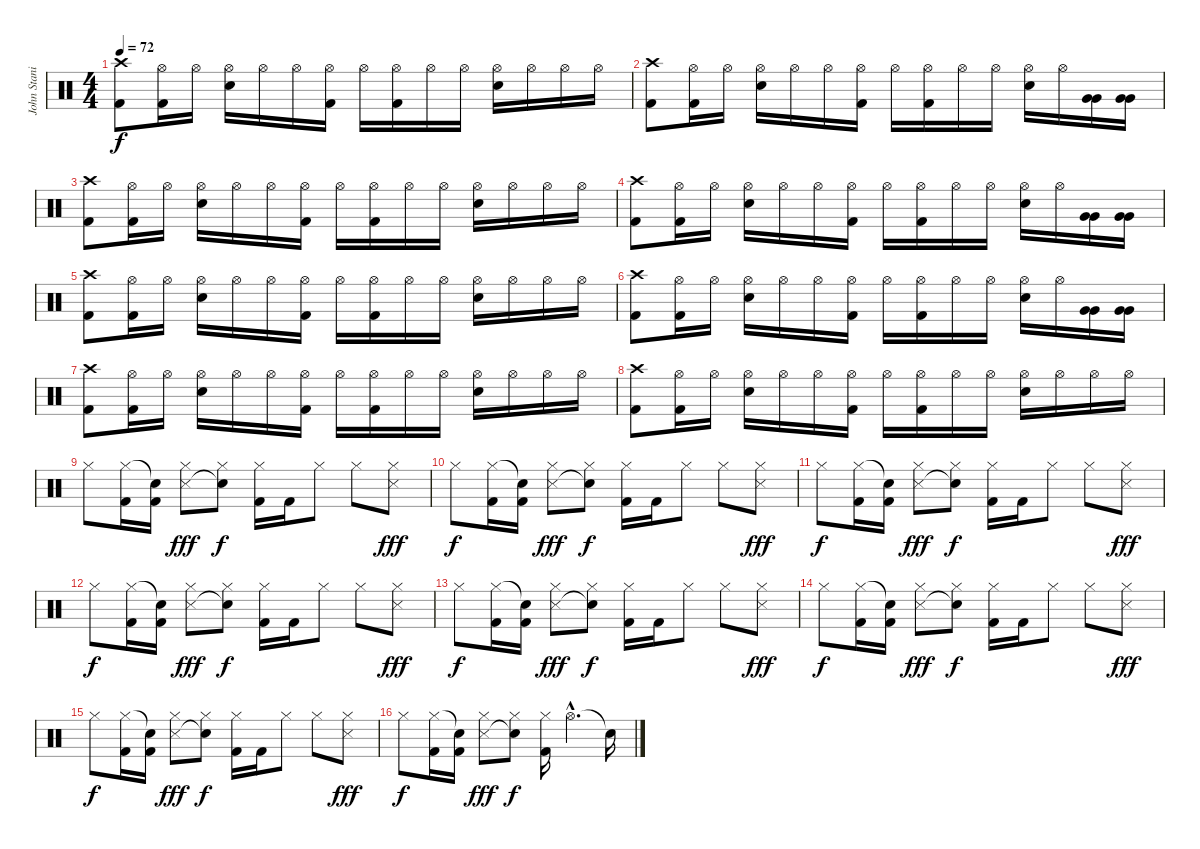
\track ("John Stanier (Drums)" "John Stani") {instrument percussion}
\staff {score}
\articulation defaults
\ts (4 4)
\tempo 72
\clef neutral
\ks c
("Crash high (hit)" "Kick (hit) 2").8{dy f} ("Hi-Hat (open)" "Kick (hit) 2").16 "Hi-Hat (open)".16 ("Hi-Hat (open)" "Electric Snare (hit)").16 "Hi-Hat (open)".16 "Hi-Hat (open)".16 ("Hi-Hat (open)" "Kick (hit) 2").16 "Hi-Hat (open)".16 ("Hi-Hat (open)" "Kick (hit) 2").16 "Hi-Hat (open)".16 "Hi-Hat (open)".16 ("Hi-Hat (open)" "Electric Snare (hit)").16 "Hi-Hat (open)".16 "Hi-Hat (open)".16 "Hi-Hat (open)".16 |
("Crash high (hit)" "Kick (hit) 2").8 ("Hi-Hat (open)" "Kick (hit) 2").16 "Hi-Hat (open)".16 ("Hi-Hat (open)" "Electric Snare (hit)").16 "Hi-Hat (open)".16 "Hi-Hat (open)".16 ("Hi-Hat (open)" "Kick (hit) 2").16 "Hi-Hat (open)".16 ("Hi-Hat (open)" "Kick (hit) 2").16 "Hi-Hat (open)".16 "Hi-Hat (open)".16 ("Hi-Hat (open)" "Electric Snare (hit)").16 "Hi-Hat (open)".16 ("Very Low Tom (hit)" "Very Low Tom (hit)").16 ("Very Low Tom (hit)" "Very Low Tom (hit)").16 |
("Crash high (hit)" "Kick (hit) 2").8 ("Hi-Hat (open)" "Kick (hit) 2").16 "Hi-Hat (open)".16 ("Hi-Hat (open)" "Electric Snare (hit)").16 "Hi-Hat (open)".16 "Hi-Hat (open)".16 ("Hi-Hat (open)" "Kick (hit) 2").16 "Hi-Hat (open)".16 ("Hi-Hat (open)" "Kick (hit) 2").16 "Hi-Hat (open)".16 "Hi-Hat (open)".16 ("Hi-Hat (open)" "Electric Snare (hit)").16 "Hi-Hat (open)".16 "Hi-Hat (open)".16 "Hi-Hat (open)".16 |
("Crash high (hit)" "Kick (hit) 2").8 ("Hi-Hat (open)" "Kick (hit) 2").16 "Hi-Hat (open)".16 ("Hi-Hat (open)" "Electric Snare (hit)").16 "Hi-Hat (open)".16 "Hi-Hat (open)".16 ("Hi-Hat (open)" "Kick (hit) 2").16 "Hi-Hat (open)".16 ("Hi-Hat (open)" "Kick (hit) 2").16 "Hi-Hat (open)".16 "Hi-Hat (open)".16 ("Hi-Hat (open)" "Electric Snare (hit)").16 "Hi-Hat (open)".16 ("Very Low Tom (hit)" "Very Low Tom (hit)").16 ("Very Low Tom (hit)" "Very Low Tom (hit)").16 |
("Crash high (hit)" "Kick (hit) 2").8 ("Hi-Hat (open)" "Kick (hit) 2").16 "Hi-Hat (open)".16 ("Hi-Hat (open)" "Electric Snare (hit)").16 "Hi-Hat (open)".16 "Hi-Hat (open)".16 ("Hi-Hat (open)" "Kick (hit) 2").16 "Hi-Hat (open)".16 ("Hi-Hat (open)" "Kick (hit) 2").16 "Hi-Hat (open)".16 "Hi-Hat (open)".16 ("Hi-Hat (open)" "Electric Snare (hit)").16 "Hi-Hat (open)".16 "Hi-Hat (open)".16 "Hi-Hat (open)".16 |
("Crash high (hit)" "Kick (hit) 2").8 ("Hi-Hat (open)" "Kick (hit) 2").16 "Hi-Hat (open)".16 ("Hi-Hat (open)" "Electric Snare (hit)").16 "Hi-Hat (open)".16 "Hi-Hat (open)".16 ("Hi-Hat (open)" "Kick (hit) 2").16 "Hi-Hat (open)".16 ("Hi-Hat (open)" "Kick (hit) 2").16 "Hi-Hat (open)".16 "Hi-Hat (open)".16 ("Hi-Hat (open)" "Electric Snare (hit)").16 "Hi-Hat (open)".16 ("Very Low Tom (hit)" "Very Low Tom (hit)").16 ("Very Low Tom (hit)" "Very Low Tom (hit)").16 |
("Crash high (hit)" "Kick (hit) 2").8 ("Hi-Hat (open)" "Kick (hit) 2").16 "Hi-Hat (open)".16 ("Hi-Hat (open)" "Electric Snare (hit)").16 "Hi-Hat (open)".16 "Hi-Hat (open)".16 ("Hi-Hat (open)" "Kick (hit) 2").16 "Hi-Hat (open)".16 ("Hi-Hat (open)" "Kick (hit) 2").16 "Hi-Hat (open)".16 "Hi-Hat (open)".16 ("Hi-Hat (open)" "Electric Snare (hit)").16 "Hi-Hat (open)".16 "Hi-Hat (open)".16 "Hi-Hat (open)".16 |
("Crash high (hit)" "Kick (hit) 2").8 ("Hi-Hat (open)" "Kick (hit) 2").16 "Hi-Hat (open)".16 ("Hi-Hat (open)" "Electric Snare (hit)").16 "Hi-Hat (open)".16 "Hi-Hat (open)".16 ("Hi-Hat (open)" "Kick (hit) 2").16 "Hi-Hat (open)".16 ("Hi-Hat (open)" "Kick (hit) 2").16 "Hi-Hat (open)".16 "Hi-Hat (open)".16 ("Hi-Hat (open)" "Electric Snare (hit)").16 "Hi-Hat (open)".16 "Hi-Hat (open)".16 "Hi-Hat (open)".16 |
"Hi-Hat (closed)".8 ("Hi-Hat (closed)" "Kick (hit) 2").16 ("Snare (hit)"{t} "Kick (hit) 2").16 ("Hi-Hat (closed)" "Snare (side stick) 3").8{dy fff} ("Hi-Hat (closed)" "Snare (hit)"{t}).8{dy f} ("Hi-Hat (closed)" "Kick (hit) 2").16 "Kick (hit) 2".16 "Hi-Hat (closed)".8 "Hi-Hat (closed)".8 ("Hi-Hat (closed)" "Snare (side stick) 3").8{dy fff} |
"Hi-Hat (closed)".8{dy f} ("Hi-Hat (closed)" "Kick (hit) 2").16 ("Snare (hit)"{t} "Kick (hit) 2").16 ("Hi-Hat (closed)" "Snare (side stick) 3").8{dy fff} ("Hi-Hat (closed)" "Snare (hit)"{t}).8{dy f} ("Hi-Hat (closed)" "Kick (hit) 2").16 "Kick (hit) 2".16 "Hi-Hat (closed)".8 "Hi-Hat (closed)".8 ("Hi-Hat (closed)" "Snare (side stick) 3").8{dy fff} |
"Hi-Hat (closed)".8{dy f} ("Hi-Hat (closed)" "Kick (hit) 2").16 ("Snare (hit)"{t} "Kick (hit) 2").16 ("Hi-Hat (closed)" "Snare (side stick) 3").8{dy fff} ("Hi-Hat (closed)" "Snare (hit)"{t}).8{dy f} ("Hi-Hat (closed)" "Kick (hit) 2").16 "Kick (hit) 2".16 "Hi-Hat (closed)".8 "Hi-Hat (closed)".8 ("Hi-Hat (closed)" "Snare (side stick) 3").8{dy fff} |
"Hi-Hat (closed)".8{dy f} ("Hi-Hat (closed)" "Kick (hit) 2").16 ("Snare (hit)"{t} "Kick (hit) 2").16 ("Hi-Hat (closed)" "Snare (side stick) 3").8{dy fff} ("Hi-Hat (closed)" "Snare (hit)"{t}).8{dy f} ("Hi-Hat (closed)" "Kick (hit) 2").16 "Kick (hit) 2".16 "Hi-Hat (closed)".8 "Hi-Hat (closed)".8 ("Hi-Hat (closed)" "Snare (side stick) 3").8{dy fff} |
"Hi-Hat (closed)".8{dy f} ("Hi-Hat (closed)" "Kick (hit) 2").16 ("Snare (hit)"{t} "Kick (hit) 2").16 ("Hi-Hat (closed)" "Snare (side stick) 3").8{dy fff} ("Hi-Hat (closed)" "Snare (hit)"{t}).8{dy f} ("Hi-Hat (closed)" "Kick (hit) 2").16 "Kick (hit) 2".16 "Hi-Hat (closed)".8 "Hi-Hat (closed)".8 ("Hi-Hat (closed)" "Snare (side stick) 3").8{dy fff} |
"Hi-Hat (closed)".8{dy f} ("Hi-Hat (closed)" "Kick (hit) 2").16 ("Snare (hit)"{t} "Kick (hit) 2").16 ("Hi-Hat (closed)" "Snare (side stick) 3").8{dy fff} ("Hi-Hat (closed)" "Snare (hit)"{t}).8{dy f} ("Hi-Hat (closed)" "Kick (hit) 2").16 "Kick (hit) 2".16 "Hi-Hat (closed)".8 "Hi-Hat (closed)".8 ("Hi-Hat (closed)" "Snare (side stick) 3").8{dy fff} |
"Hi-Hat (closed)".8{dy f} ("Hi-Hat (closed)" "Kick (hit) 2").16 ("Snare (hit)"{t} "Kick (hit) 2").16 ("Hi-Hat (closed)" "Snare (side stick) 3").8{dy fff} ("Hi-Hat (closed)" "Snare (hit)"{t}).8{dy f} ("Hi-Hat (closed)" "Kick (hit) 2").16 "Kick (hit) 2".16 "Hi-Hat (closed)".8 "Hi-Hat (closed)".8 ("Hi-Hat (closed)" "Snare (side stick) 3").8{dy fff} |
"Hi-Hat (closed)".8{dy f} ("Hi-Hat (closed)" "Kick (hit) 2").16 ("Snare (hit)"{t} "Kick (hit) 2").16 ("Hi-Hat (closed)" "Snare (side stick) 3").8{dy fff} ("Hi-Hat (closed)" "Snare (hit)"{t}).8{dy f} ("Hi-Hat (closed)" "Kick (hit) 2").16 "Hi-Hat (open)"{hac}.4{d} "Snare (hit)"{t}.16
